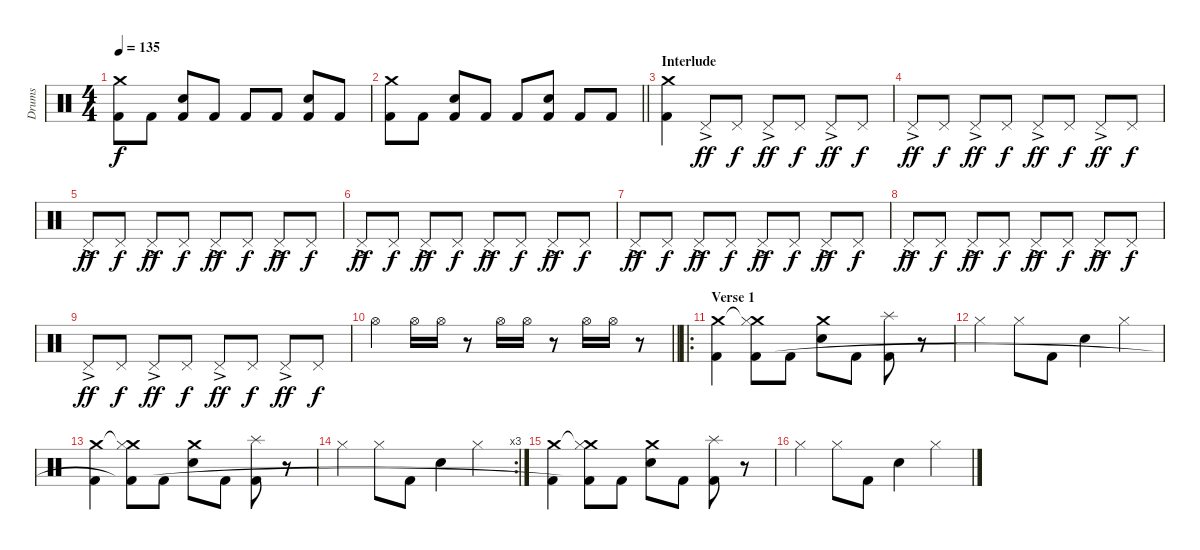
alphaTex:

\track ("Drums" "Drums") {instrument percussion}
\staff {score}
\articulation defaults
\ts (4 4)
\tempo 135
\clef neutral
\ks c
("Crash medium (hit)" "Kick (hit) 2").8{dy f} "Kick (hit) 2".8 ("Snare (hit) 2" "Kick (hit) 2").8 "Kick (hit) 2".8 "Kick (hit) 2".8 "Kick (hit) 2".8 ("Snare (hit) 2" "Kick (hit) 2").8 "Kick (hit) 2".8 |
\barLineRight lightlight
("Crash medium (hit)" "Kick (hit) 2").8 "Kick (hit) 2".8 ("Snare (hit) 2" "Kick (hit) 2").8 "Kick (hit) 2".8 "Kick (hit) 2".8 ("Snare (hit) 2" "Kick (hit) 2").8 "Kick (hit) 2".8 "Kick (hit) 2".8 |
\section ("" "Interlude")
("Crash medium (hit)" "Kick (hit) 2").4 "Pedal Hi-Hat (hit)"{ac}.8{dy ff} "Pedal Hi-Hat (hit)".8{dy f} "Pedal Hi-Hat (hit)"{ac}.8{dy ff} "Pedal Hi-Hat (hit)".8{dy f} "Pedal Hi-Hat (hit)"{ac}.8{dy ff} "Pedal Hi-Hat (hit)".8{dy f} |
"Pedal Hi-Hat (hit)"{ac}.8{dy ff} "Pedal Hi-Hat (hit)".8{dy f} "Pedal Hi-Hat (hit)"{ac}.8{dy ff} "Pedal Hi-Hat (hit)".8{dy f} "Pedal Hi-Hat (hit)"{ac}.8{dy ff} "Pedal Hi-Hat (hit)".8{dy f} "Pedal Hi-Hat (hit)"{ac}.8{dy ff} "Pedal Hi-Hat (hit)".8{dy f} |
"Pedal Hi-Hat (hit)"{ac}.8{dy ff} "Pedal Hi-Hat (hit)".8{dy f} "Pedal Hi-Hat (hit)"{ac}.8{dy ff} "Pedal Hi-Hat (hit)".8{dy f} "Pedal Hi-Hat (hit)"{ac}.8{dy ff} "Pedal Hi-Hat (hit)".8{dy f} "Pedal Hi-Hat (hit)"{ac}.8{dy ff} "Pedal Hi-Hat (hit)".8{dy f} |
"Pedal Hi-Hat (hit)"{ac}.8{dy ff} "Pedal Hi-Hat (hit)".8{dy f} "Pedal Hi-Hat (hit)"{ac}.8{dy ff} "Pedal Hi-Hat (hit)".8{dy f} "Pedal Hi-Hat (hit)"{ac}.8{dy ff} "Pedal Hi-Hat (hit)".8{dy f} "Pedal Hi-Hat (hit)"{ac}.8{dy ff} "Pedal Hi-Hat (hit)".8{dy f} |
"Pedal Hi-Hat (hit)"{ac}.8{dy ff} "Pedal Hi-Hat (hit)".8{dy f} "Pedal Hi-Hat (hit)"{ac}.8{dy ff} "Pedal Hi-Hat (hit)".8{dy f} "Pedal Hi-Hat (hit)"{ac}.8{dy ff} "Pedal Hi-Hat (hit)".8{dy f} "Pedal Hi-Hat (hit)"{ac}.8{dy ff} "Pedal Hi-Hat (hit)".8{dy f} |
"Pedal Hi-Hat (hit)"{ac}.8{dy ff} "Pedal Hi-Hat (hit)".8{dy f} "Pedal Hi-Hat (hit)"{ac}.8{dy ff} "Pedal Hi-Hat (hit)".8{dy f} "Pedal Hi-Hat (hit)"{ac}.8{dy ff} "Pedal Hi-Hat (hit)".8{dy f} "Pedal Hi-Hat (hit)"{ac}.8{dy ff} "Pedal Hi-Hat (hit)".8{dy f} |
"Pedal Hi-Hat (hit)"{ac}.8{dy ff} "Pedal Hi-Hat (hit)".8{dy f} "Pedal Hi-Hat (hit)"{ac}.8{dy ff} "Pedal Hi-Hat (hit)".8{dy f} "Pedal Hi-Hat (hit)"{ac}.8{dy ff} "Pedal Hi-Hat (hit)".8{dy f} "Pedal Hi-Hat (hit)"{ac}.8{dy ff} "Pedal Hi-Hat (hit)".8{dy f} |
\barLineRight lightlight "Hi-Hat (open)".4 "Hi-Hat (open)".16 "Hi-Hat (open)".16
r.8 "Hi-Hat (open)".16 "Hi-Hat (open)".16 r.8 "Hi-Hat (open)".16 "Hi-Hat (open)".16 r.8 |
\ro
\section ("" "Verse 1")
("Crash medium (hit)" "Kick (hit) 2").4 ("Crash medium (hit)"{t} "Hi-Hat (closed)" "Kick (hit) 2").8 "Kick (hit) 2".8 ("Crash medium (hit)" "Snare (hit) 2").8 "Kick (hit) 2".8 ("Splash (hit)" "Kick (hit) 2").8 r.8 |
"Hi-Hat (closed)".4 "Hi-Hat (closed)".8 "Kick (hit) 2".8 "Snare (hit) 2".4 "Hi-Hat (closed)".4 |
("Crash medium (hit)" "Kick (hit) 2").4 ("Crash medium (hit)"{t} "Hi-Hat (closed)" "Kick (hit) 2"{t}).8 "Kick (hit) 2".8 ("Crash medium (hit)" "Snare (hit) 2").8 "Kick (hit) 2".8 ("Splash (hit)" "Kick (hit) 2").8 r.8 |
\rc 3 "Hi-Hat (closed)".4 "Hi-Hat (closed)".8 "Kick (hit) 2".8 "Snare (hit) 2".4 "Hi-Hat (closed)".4
|
("Crash medium (hit)" "Kick (hit) 2").4 ("Crash medium (hit)"{t} "Hi-Hat (closed)" "Kick (hit) 2"{t}).8 "Kick (hit) 2".8 ("Crash medium (hit)" "Snare (hit) 2").8 "Kick (hit) 2".8 ("Splash (hit)" "Kick (hit) 2").8 r.8 |
"Hi-Hat (closed)".4 "Hi-Hat (closed)".8 "Kick (hit) 2".8 "Snare (hit) 2".4 "Hi-Hat (closed)".4
